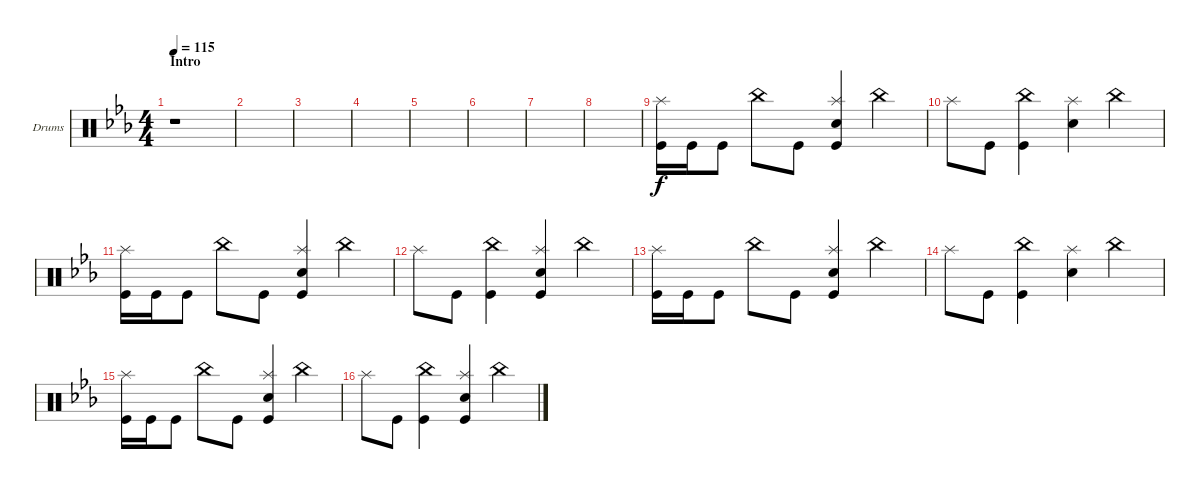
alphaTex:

\bracketExtendMode groupsimilarinstruments
\firstSystemTrackNameOrientation horizontal
\otherSystemsTrackNameOrientation horizontal
\track ("Drumkit" "Drums") {instrument percussion}
\staff {score}
\articulation defaults
\ts (4 4)
\section ("" "Intro")
\tempo 115
\clef neutral
\ks cminor
r.1{dy f} |
|
|
|
|
|
|
|
("Kick (hit)" "Splash (hit)").16 "Kick (hit)".16 "Kick (hit)".8 "China (hit)".8 "Kick (hit)".8 ("Snare (hit) 2" "Kick (hit)" "Splash (hit)").4 "China (hit)".4 |
"Splash (hit)".8 "Kick (hit)".8 ("Kick (hit)" "China (hit)").4 ("Splash (hit)" "Snare (hit) 2").4 "China (hit)".4 |
("Kick (hit)" "Splash (hit)").16 "Kick (hit)".16 "Kick (hit)".8 "China (hit)".8 "Kick (hit)".8 ("Snare (hit) 2" "Kick (hit)" "Splash (hit)").4 "China (hit)".4 |
"Splash (hit)".8 "Kick (hit)".8 ("Kick (hit)" "China (hit)").4 ("Kick (hit)" "Splash (hit)" "Snare (hit) 2").4 "China (hit)".4 |
("Kick (hit)" "Splash (hit)").16 "Kick (hit)".16 "Kick (hit)".8 "China (hit)".8 "Kick (hit)".8 ("Snare (hit) 2" "Kick (hit)" "Splash (hit)").4 "China (hit)".4 |
"Splash (hit)".8 "Kick (hit)".8 ("Kick (hit)" "China (hit)").4 ("Splash (hit)" "Snare (hit) 2").4 "China (hit)".4 |
("Kick (hit)" "Splash (hit)").16 "Kick (hit)".16 "Kick (hit)".8 "China (hit)".8 "Kick (hit)".8 ("Snare (hit) 2" "Kick (hit)" "Splash (hit)").4 "China (hit)".4 |
"Splash (hit)".8 "Kick (hit)".8 ("Kick (hit)" "China (hit)").4 ("Kick (hit)" "Splash (hit)" "Snare (hit) 2").4 "China (hit)".4
